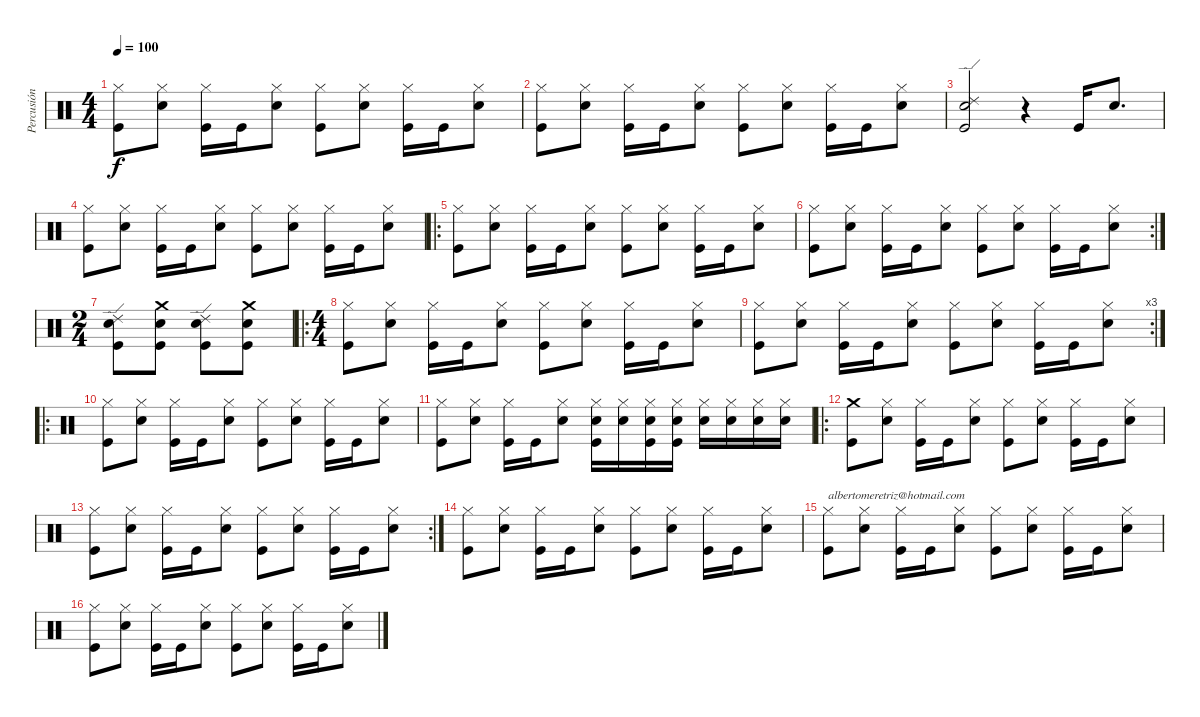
\track ("Percusión" "Percusión") {instrument percussion}
\staff {score}
\articulation defaults
\ts (4 4)
\tempo 100
\clef neutral
\ks c
("Hi-Hat (closed)" "Kick (hit)").8{dy f} ("Hi-Hat (closed)" "Electric Snare (hit)").8 ("Hi-Hat (closed)" "Kick (hit)").16 "Kick (hit)".16 ("Hi-Hat (closed)" "Electric Snare (hit)").8 ("Hi-Hat (closed)" "Kick (hit)").8 ("Hi-Hat (closed)" "Electric Snare (hit)").8 ("Hi-Hat (closed)" "Kick (hit)").16 "Kick (hit)".16 ("Hi-Hat (closed)" "Electric Snare (hit)").8 |
("Hi-Hat (closed)" "Kick (hit)").8 ("Hi-Hat (closed)" "Electric Snare (hit)").8 ("Hi-Hat (closed)" "Kick (hit)").16 "Kick (hit)".16 ("Hi-Hat (closed)" "Electric Snare (hit)").8 ("Hi-Hat (closed)" "Kick (hit)").8 ("Hi-Hat (closed)" "Electric Snare (hit)").8 ("Hi-Hat (closed)" "Kick (hit)").16 "Kick (hit)".16 ("Hi-Hat (closed)" "Electric Snare (hit)").8 |
("Ride (edge) 2" "Electric Snare (hit)" "Kick (hit)").2 r.4 "Kick (hit)".16 "Electric Snare (hit)".8{d} |
("Hi-Hat (closed)" "Kick (hit)").8 ("Hi-Hat (closed)" "Electric Snare (hit)").8 ("Hi-Hat (closed)" "Kick (hit)").16 "Kick (hit)".16 ("Hi-Hat (closed)" "Electric Snare (hit)").8 ("Hi-Hat (closed)" "Kick (hit)").8 ("Hi-Hat (closed)" "Electric Snare (hit)").8 ("Hi-Hat (closed)" "Kick (hit)").16 "Kick (hit)".16 ("Hi-Hat (closed)" "Electric Snare (hit)").8 |
\ro
("Hi-Hat (closed)" "Kick (hit)").8 ("Hi-Hat (closed)" "Electric Snare (hit)").8 ("Hi-Hat (closed)" "Kick (hit)").16 "Kick (hit)".16 ("Hi-Hat (closed)" "Electric Snare (hit)").8 ("Hi-Hat (closed)" "Kick (hit)").8 ("Hi-Hat (closed)" "Electric Snare (hit)").8 ("Hi-Hat (closed)" "Kick (hit)").16 "Kick (hit)".16 ("Hi-Hat (closed)" "Electric Snare (hit)").8 |
\rc 2
("Hi-Hat (closed)" "Kick (hit)").8 ("Hi-Hat (closed)" "Electric Snare (hit)").8 ("Hi-Hat (closed)" "Kick (hit)").16 "Kick (hit)".16 ("Hi-Hat (closed)" "Electric Snare (hit)").8 ("Hi-Hat (closed)" "Kick (hit)").8 ("Hi-Hat (closed)" "Electric Snare (hit)").8 ("Hi-Hat (closed)" "Kick (hit)").16 "Kick (hit)".16 ("Hi-Hat (closed)" "Electric Snare (hit)").8 |
\ts (2 4)
("Ride (edge) 2" "Electric Snare (hit)" "Kick (hit)").8 ("Crash medium (hit)" "Electric Snare (hit)" "Kick (hit)").8 ("Ride (edge) 2" "Electric Snare (hit)" "Kick (hit)").8 ("Crash medium (hit)" "Electric Snare (hit)" "Kick (hit)").8 |
\ro
\ts (4 4)
("Hi-Hat (closed)" "Kick (hit)").8 ("Hi-Hat (closed)" "Electric Snare (hit)").8 ("Hi-Hat (closed)" "Kick (hit)").16 "Kick (hit)".16 ("Hi-Hat (closed)" "Electric Snare (hit)").8 ("Hi-Hat (closed)" "Kick (hit)").8 ("Hi-Hat (closed)" "Electric Snare (hit)").8 ("Hi-Hat (closed)" "Kick (hit)").16 "Kick (hit)".16 ("Hi-Hat (closed)" "Electric Snare (hit)").8 |
\rc 3
("Hi-Hat (closed)" "Kick (hit)").8 ("Hi-Hat (closed)" "Electric Snare (hit)").8 ("Hi-Hat (closed)" "Kick (hit)").16 "Kick (hit)".16 ("Hi-Hat (closed)" "Electric Snare (hit)").8 ("Hi-Hat (closed)" "Kick (hit)").8 ("Hi-Hat (closed)" "Electric Snare (hit)").8 ("Hi-Hat (closed)" "Kick (hit)").16 "Kick (hit)".16 ("Hi-Hat (closed)" "Electric Snare (hit)").8 |
\ro
("Hi-Hat (closed)" "Kick (hit)").8 ("Hi-Hat (closed)" "Electric Snare (hit)").8 ("Hi-Hat (closed)" "Kick (hit)").16 "Kick (hit)".16 ("Hi-Hat (closed)" "Electric Snare (hit)").8 ("Hi-Hat (closed)" "Kick (hit)").8 ("Hi-Hat (closed)" "Electric Snare (hit)").8 ("Hi-Hat (closed)" "Kick (hit)").16 "Kick (hit)".16 ("Hi-Hat (closed)" "Electric Snare (hit)").8 |
("Hi-Hat (closed)" "Kick (hit)").8 ("Hi-Hat (closed)" "Electric Snare (hit)").8 ("Hi-Hat (closed)" "Kick (hit)").16 "Kick (hit)".16 ("Hi-Hat (closed)" "Electric Snare (hit)").8 ("Hi-Hat (closed)" "Electric Snare (hit)" "Kick (hit)").16 ("Hi-Hat (closed)" "Electric Snare (hit)").16 ("Hi-Hat (closed)" "Electric Snare (hit)" "Kick (hit)").16 ("Hi-Hat (closed)" "Electric Snare (hit)" "Kick (hit)").16 ("Hi-Hat (closed)" "Electric Snare (hit)").16 ("Hi-Hat (closed)" "Electric Snare (hit)").16 ("Hi-Hat (closed)" "Electric Snare (hit)").16 ("Hi-Hat (closed)" "Electric Snare (hit)").16 |
\ro
("Crash medium (hit)" "Kick (hit)").8 ("Hi-Hat (closed)" "Electric Snare (hit)").8 ("Hi-Hat (closed)" "Kick (hit)").16 "Kick (hit)".16 ("Hi-Hat (closed)" "Electric Snare (hit)").8 ("Hi-Hat (closed)" "Kick (hit)").8 ("Hi-Hat (closed)" "Electric Snare (hit)").8 ("Hi-Hat (closed)" "Kick (hit)").16 "Kick (hit)".16 ("Hi-Hat (closed)" "Electric Snare (hit)").8 |
\rc 2
("Hi-Hat (closed)" "Kick (hit)").8 ("Hi-Hat (closed)" "Electric Snare (hit)").8 ("Hi-Hat (closed)" "Kick (hit)").16 "Kick (hit)".16 ("Hi-Hat (closed)" "Electric Snare (hit)").8 ("Hi-Hat (closed)" "Kick (hit)").8 ("Hi-Hat (closed)" "Electric Snare (hit)").8 ("Hi-Hat (closed)" "Kick (hit)").16 "Kick (hit)".16 ("Hi-Hat (closed)" "Electric Snare (hit)").8 |
("Hi-Hat (closed)" "Kick (hit)").8 ("Hi-Hat (closed)" "Electric Snare (hit)").8 ("Hi-Hat (closed)" "Kick (hit)").16 "Kick (hit)".16 ("Hi-Hat (closed)" "Electric Snare (hit)").8 ("Hi-Hat (closed)" "Kick (hit)").8 ("Hi-Hat (closed)" "Electric Snare (hit)").8 ("Hi-Hat (closed)" "Kick (hit)").16 "Kick (hit)".16 ("Hi-Hat (closed)" "Electric Snare (hit)").8 |
("Hi-Hat (closed)" "Kick (hit)").8{txt "albertomeretriz@hotmail.com"} ("Hi-Hat (closed)" "Electric Snare (hit)").8 ("Hi-Hat (closed)" "Kick (hit)").16 "Kick (hit)".16 ("Hi-Hat (closed)" "Electric Snare (hit)").8 ("Hi-Hat (closed)" "Kick (hit)").8 ("Hi-Hat (closed)" "Electric Snare (hit)").8 ("Hi-Hat (closed)" "Kick (hit)").16 "Kick (hit)".16 ("Hi-Hat (closed)" "Electric Snare (hit)").8 |
("Hi-Hat (closed)" "Kick (hit)").8 ("Hi-Hat (closed)" "Electric Snare (hit)").8 ("Hi-Hat (closed)" "Kick (hit)").16 "Kick (hit)".16 ("Hi-Hat (closed)" "Electric Snare (hit)").8 ("Hi-Hat (closed)" "Kick (hit)").8 ("Hi-Hat (closed)" "Electric Snare (hit)").8 ("Hi-Hat (closed)" "Kick (hit)").16 "Kick (hit)".16 ("Hi-Hat (closed)" "Electric Snare (hit)").8
